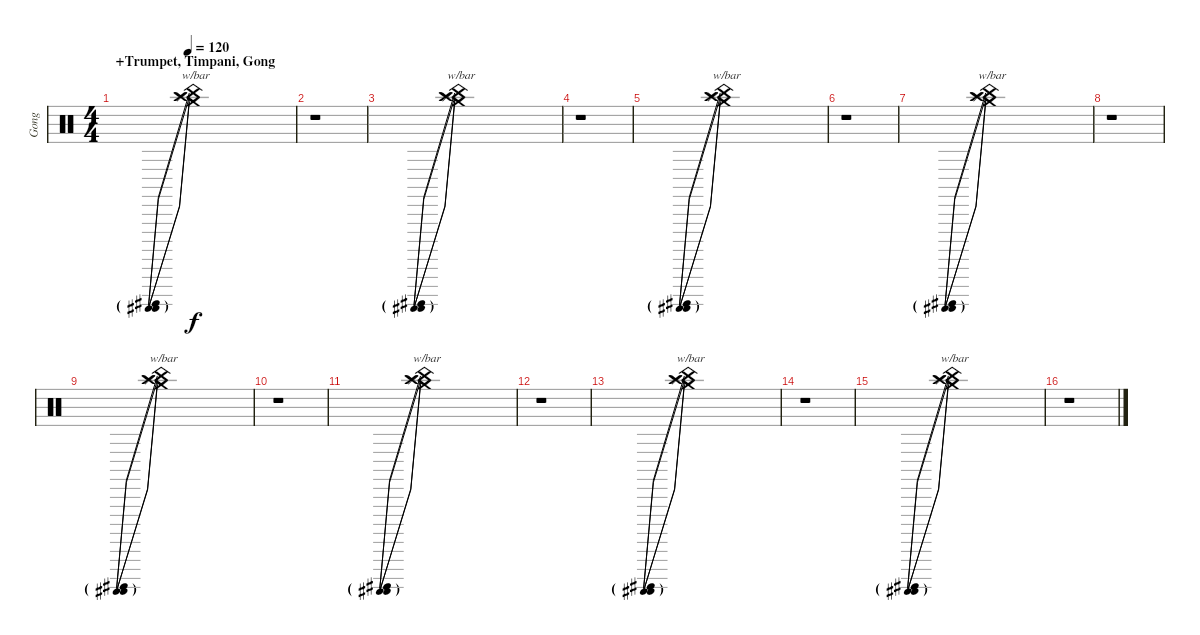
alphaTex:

\track ("Gong" "Gong") {instrument percussion}
\staff {score}
\articulation defaults
\ts (4 4)
\section ("" "+Trumpet, Timpani, Gong")
\tempo 120
\clef neutral
\ks c
("Crash medium (hit)" "Splash (hit)" "China (hit)" "Crash high (hit)").1{tbe (predive default 0 -24 60 -24) dy f} |
r.1 |
("Crash medium (hit)" "Splash (hit)" "China (hit)" "Crash high (hit)").1{tbe (predive default 0 -24 60 -24)} |
r.1 |
("Crash medium (hit)" "Splash (hit)" "China (hit)" "Crash high (hit)").1{tbe (predive default 0 -24 60 -24)} |
r.1 |
("Crash medium (hit)" "Splash (hit)" "China (hit)" "Crash high (hit)").1{tbe (predive default 0 -24 60 -24)} |
r.1 |
("Crash medium (hit)" "Splash (hit)" "China (hit)" "Crash high (hit)").1{tbe (predive default 0 -24 60 -24)} |
r.1 |
("Crash medium (hit)" "Splash (hit)" "China (hit)" "Crash high (hit)").1{tbe (predive default 0 -24 60 -24)} |
r.1 |
("Crash medium (hit)" "Splash (hit)" "China (hit)" "Crash high (hit)").1{tbe (predive default 0 -24 60 -24)} |
r.1 |
("Crash medium (hit)" "Splash (hit)" "China (hit)" "Crash high (hit)").1{tbe (predive default 0 -24 60 -24)} |
r.1
